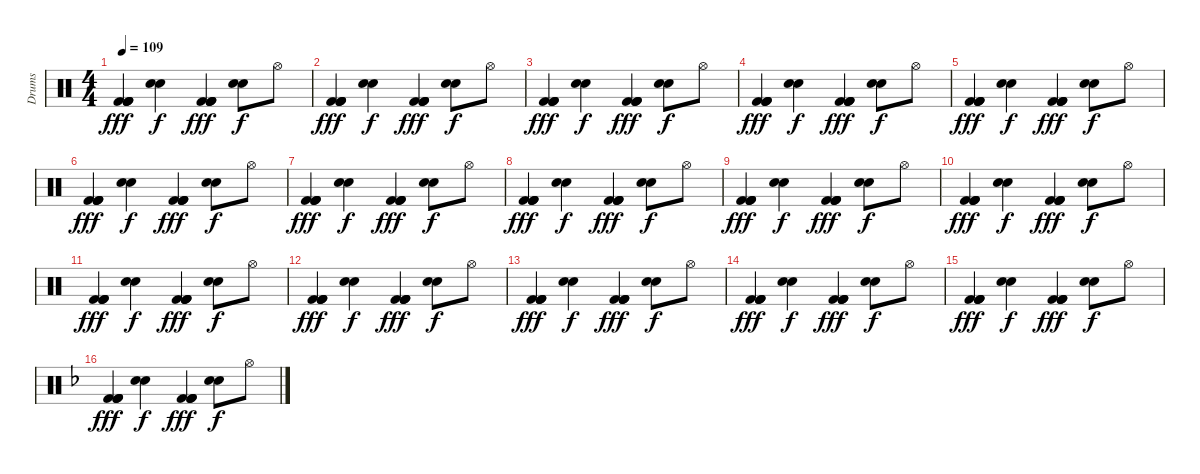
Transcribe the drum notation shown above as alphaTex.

\track ("Drums" "Drums") {instrument percussion}
\staff {score}
\articulation defaults
\ts (4 4)
\tempo 109
\clef neutral
\ks c
("Kick (hit) 2" "Kick (hit) 2" "Kick (hit) 2" "Kick (hit) 2").4{dy fff volume 16} ("Snare (hit) 2" "Electric Snare (hit)").4{dy f} ("Kick (hit) 2" "Kick (hit) 2" "Kick (hit) 2" "Kick (hit) 2").4{dy fff} ("Snare (hit) 2" "Electric Snare (hit)").8{dy f} "Hi-Hat (open)".8 |
("Kick (hit) 2" "Kick (hit) 2" "Kick (hit) 2" "Kick (hit) 2").4{dy fff volume 16} ("Snare (hit) 2" "Electric Snare (hit)").4{dy f} ("Kick (hit) 2" "Kick (hit) 2" "Kick (hit) 2" "Kick (hit) 2").4{dy fff} ("Snare (hit) 2" "Electric Snare (hit)").8{dy f} "Hi-Hat (open)".8 |
("Kick (hit) 2" "Kick (hit) 2" "Kick (hit) 2" "Kick (hit) 2").4{dy fff volume 16} ("Snare (hit) 2" "Electric Snare (hit)").4{dy f} ("Kick (hit) 2" "Kick (hit) 2" "Kick (hit) 2" "Kick (hit) 2").4{dy fff} ("Snare (hit) 2" "Electric Snare (hit)").8{dy f} "Hi-Hat (open)".8 |
("Kick (hit) 2" "Kick (hit) 2" "Kick (hit) 2" "Kick (hit) 2").4{dy fff volume 16} ("Snare (hit) 2" "Electric Snare (hit)").4{dy f} ("Kick (hit) 2" "Kick (hit) 2" "Kick (hit) 2" "Kick (hit) 2").4{dy fff} ("Snare (hit) 2" "Electric Snare (hit)").8{dy f} "Hi-Hat (open)".8 |
("Kick (hit) 2" "Kick (hit) 2" "Kick (hit) 2" "Kick (hit) 2").4{dy fff volume 16} ("Snare (hit) 2" "Electric Snare (hit)").4{dy f} ("Kick (hit) 2" "Kick (hit) 2" "Kick (hit) 2" "Kick (hit) 2").4{dy fff} ("Snare (hit) 2" "Electric Snare (hit)").8{dy f} "Hi-Hat (open)".8 |
("Kick (hit) 2" "Kick (hit) 2" "Kick (hit) 2" "Kick (hit) 2").4{dy fff volume 16} ("Snare (hit) 2" "Electric Snare (hit)").4{dy f} ("Kick (hit) 2" "Kick (hit) 2" "Kick (hit) 2" "Kick (hit) 2").4{dy fff} ("Snare (hit) 2" "Electric Snare (hit)").8{dy f} "Hi-Hat (open)".8 |
("Kick (hit) 2" "Kick (hit) 2" "Kick (hit) 2" "Kick (hit) 2").4{dy fff volume 16} ("Snare (hit) 2" "Electric Snare (hit)").4{dy f} ("Kick (hit) 2" "Kick (hit) 2" "Kick (hit) 2" "Kick (hit) 2").4{dy fff} ("Snare (hit) 2" "Electric Snare (hit)").8{dy f} "Hi-Hat (open)".8 |
("Kick (hit) 2" "Kick (hit) 2" "Kick (hit) 2" "Kick (hit) 2").4{dy fff volume 16} ("Snare (hit) 2" "Electric Snare (hit)").4{dy f} ("Kick (hit) 2" "Kick (hit) 2" "Kick (hit) 2" "Kick (hit) 2").4{dy fff} ("Snare (hit) 2" "Electric Snare (hit)").8{dy f} "Hi-Hat (open)".8 |
("Kick (hit) 2" "Kick (hit) 2" "Kick (hit) 2" "Kick (hit) 2").4{dy fff volume 16} ("Snare (hit) 2" "Electric Snare (hit)").4{dy f} ("Kick (hit) 2" "Kick (hit) 2" "Kick (hit) 2" "Kick (hit) 2").4{dy fff} ("Snare (hit) 2" "Electric Snare (hit)").8{dy f} "Hi-Hat (open)".8 |
("Kick (hit) 2" "Kick (hit) 2" "Kick (hit) 2" "Kick (hit) 2").4{dy fff volume 16} ("Snare (hit) 2" "Electric Snare (hit)").4{dy f} ("Kick (hit) 2" "Kick (hit) 2" "Kick (hit) 2" "Kick (hit) 2").4{dy fff} ("Snare (hit) 2" "Electric Snare (hit)").8{dy f} "Hi-Hat (open)".8 |
("Kick (hit) 2" "Kick (hit) 2" "Kick (hit) 2" "Kick (hit) 2").4{dy fff volume 16} ("Snare (hit) 2" "Electric Snare (hit)").4{dy f} ("Kick (hit) 2" "Kick (hit) 2" "Kick (hit) 2" "Kick (hit) 2").4{dy fff} ("Snare (hit) 2" "Electric Snare (hit)").8{dy f} "Hi-Hat (open)".8 |
("Kick (hit) 2" "Kick (hit) 2" "Kick (hit) 2" "Kick (hit) 2").4{dy fff volume 16} ("Snare (hit) 2" "Electric Snare (hit)").4{dy f} ("Kick (hit) 2" "Kick (hit) 2" "Kick (hit) 2" "Kick (hit) 2").4{dy fff} ("Snare (hit) 2" "Electric Snare (hit)").8{dy f} "Hi-Hat (open)".8 |
("Kick (hit) 2" "Kick (hit) 2" "Kick (hit) 2" "Kick (hit) 2").4{dy fff volume 16} ("Snare (hit) 2" "Electric Snare (hit)").4{dy f} ("Kick (hit) 2" "Kick (hit) 2" "Kick (hit) 2" "Kick (hit) 2").4{dy fff} ("Snare (hit) 2" "Electric Snare (hit)").8{dy f} "Hi-Hat (open)".8 |
("Kick (hit) 2" "Kick (hit) 2" "Kick (hit) 2" "Kick (hit) 2").4{dy fff volume 16} ("Snare (hit) 2" "Electric Snare (hit)").4{dy f} ("Kick (hit) 2" "Kick (hit) 2" "Kick (hit) 2" "Kick (hit) 2").4{dy fff} ("Snare (hit) 2" "Electric Snare (hit)").8{dy f} "Hi-Hat (open)".8 |
("Kick (hit) 2" "Kick (hit) 2" "Kick (hit) 2" "Kick (hit) 2").4{dy fff volume 16} ("Snare (hit) 2" "Electric Snare (hit)").4{dy f} ("Kick (hit) 2" "Kick (hit) 2" "Kick (hit) 2" "Kick (hit) 2").4{dy fff} ("Snare (hit) 2" "Electric Snare (hit)").8{dy f} "Hi-Hat (open)".8 |
\ks dminor
("Kick (hit) 2" "Kick (hit) 2" "Kick (hit) 2" "Kick (hit) 2").4{dy fff volume 16} ("Snare (hit) 2" "Electric Snare (hit)").4{dy f} ("Kick (hit) 2" "Kick (hit) 2" "Kick (hit) 2" "Kick (hit) 2").4{dy fff} ("Snare (hit) 2" "Electric Snare (hit)").8{dy f} "Hi-Hat (open)".8
